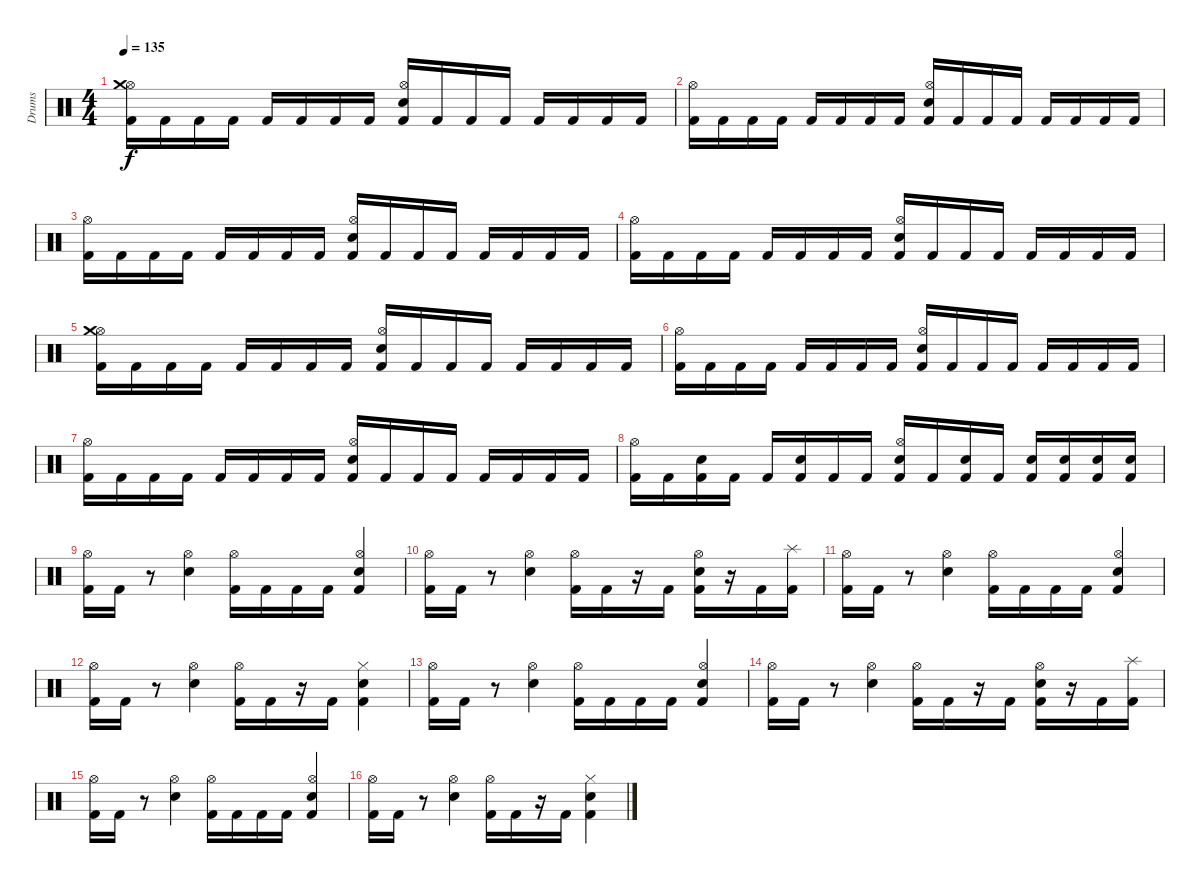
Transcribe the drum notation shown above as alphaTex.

\track ("Drums" "Drums") {instrument percussion}
\staff {score}
\articulation defaults
\ts (4 4)
\tempo 135
\clef neutral
\ks c
("Kick (hit) 2" "Hi-Hat (open)" "Crash medium (hit)").16{dy f} "Kick (hit) 2".16 "Kick (hit) 2".16 "Kick (hit) 2".16 "Kick (hit) 2".16 "Kick (hit) 2".16 "Kick (hit) 2".16 "Kick (hit) 2".16 ("Snare (hit) 2" "Kick (hit) 2" "Hi-Hat (open)").16 "Kick (hit) 2".16 "Kick (hit) 2".16 "Kick (hit) 2".16 "Kick (hit) 2".16 "Kick (hit) 2".16 "Kick (hit) 2".16 "Kick (hit) 2".16 |
("Kick (hit) 2" "Hi-Hat (open)").16 "Kick (hit) 2".16 "Kick (hit) 2".16 "Kick (hit) 2".16 "Kick (hit) 2".16 "Kick (hit) 2".16 "Kick (hit) 2".16 "Kick (hit) 2".16 ("Snare (hit) 2" "Kick (hit) 2" "Hi-Hat (open)").16 "Kick (hit) 2".16 "Kick (hit) 2".16 "Kick (hit) 2".16 "Kick (hit) 2".16 "Kick (hit) 2".16 "Kick (hit) 2".16 "Kick (hit) 2".16 |
("Kick (hit) 2" "Hi-Hat (open)").16 "Kick (hit) 2".16 "Kick (hit) 2".16 "Kick (hit) 2".16 "Kick (hit) 2".16 "Kick (hit) 2".16 "Kick (hit) 2".16 "Kick (hit) 2".16 ("Snare (hit) 2" "Kick (hit) 2" "Hi-Hat (open)").16 "Kick (hit) 2".16 "Kick (hit) 2".16 "Kick (hit) 2".16 "Kick (hit) 2".16 "Kick (hit) 2".16 "Kick (hit) 2".16 "Kick (hit) 2".16 |
("Kick (hit) 2" "Hi-Hat (open)").16 "Kick (hit) 2".16 "Kick (hit) 2".16 "Kick (hit) 2".16 "Kick (hit) 2".16 "Kick (hit) 2".16 "Kick (hit) 2".16 "Kick (hit) 2".16 ("Snare (hit) 2" "Kick (hit) 2" "Hi-Hat (open)").16 "Kick (hit) 2".16 "Kick (hit) 2".16 "Kick (hit) 2".16 "Kick (hit) 2".16 "Kick (hit) 2".16 "Kick (hit) 2".16 "Kick (hit) 2".16 |
("Kick (hit) 2" "Hi-Hat (open)" "Crash medium (hit)").16 "Kick (hit) 2".16 "Kick (hit) 2".16 "Kick (hit) 2".16 "Kick (hit) 2".16 "Kick (hit) 2".16 "Kick (hit) 2".16 "Kick (hit) 2".16 ("Snare (hit) 2" "Kick (hit) 2" "Hi-Hat (open)").16 "Kick (hit) 2".16 "Kick (hit) 2".16 "Kick (hit) 2".16 "Kick (hit) 2".16 "Kick (hit) 2".16 "Kick (hit) 2".16 "Kick (hit) 2".16 |
("Kick (hit) 2" "Hi-Hat (open)").16 "Kick (hit) 2".16 "Kick (hit) 2".16 "Kick (hit) 2".16 "Kick (hit) 2".16 "Kick (hit) 2".16 "Kick (hit) 2".16 "Kick (hit) 2".16 ("Snare (hit) 2" "Kick (hit) 2" "Hi-Hat (open)").16 "Kick (hit) 2".16 "Kick (hit) 2".16 "Kick (hit) 2".16 "Kick (hit) 2".16 "Kick (hit) 2".16 "Kick (hit) 2".16 "Kick (hit) 2".16 |
("Kick (hit) 2" "Hi-Hat (open)").16 "Kick (hit) 2".16 "Kick (hit) 2".16 "Kick (hit) 2".16 "Kick (hit) 2".16 "Kick (hit) 2".16 "Kick (hit) 2".16 "Kick (hit) 2".16 ("Snare (hit) 2" "Kick (hit) 2" "Hi-Hat (open)").16 "Kick (hit) 2".16 "Kick (hit) 2".16 "Kick (hit) 2".16 "Kick (hit) 2".16 "Kick (hit) 2".16 "Kick (hit) 2".16 "Kick (hit) 2".16 |
("Kick (hit) 2" "Hi-Hat (open)").16 "Kick (hit) 2".16 ("Snare (hit) 2" "Kick (hit) 2").16 "Kick (hit) 2".16 "Kick (hit) 2".16 ("Snare (hit) 2" "Kick (hit) 2").16 "Kick (hit) 2".16 "Kick (hit) 2".16 ("Snare (hit) 2" "Kick (hit) 2" "Hi-Hat (open)").16 "Kick (hit) 2".16 ("Snare (hit) 2" "Kick (hit) 2").16 "Kick (hit) 2".16 ("Snare (hit) 2" "Kick (hit) 2").16 ("Snare (hit) 2" "Kick (hit) 2").16 ("Snare (hit) 2" "Kick (hit) 2").16 ("Snare (hit) 2" "Kick (hit) 2").16 |
("Hi-Hat (open)" "Kick (hit) 2").16 "Kick (hit) 2".16 r.8 ("Hi-Hat (open)" "Snare (hit) 2").4 ("Hi-Hat (open)" "Kick (hit) 2").16 "Kick (hit) 2".16 "Kick (hit) 2".16 "Kick (hit) 2".16 ("Hi-Hat (open)" "Kick (hit) 2" "Snare (hit) 2").4 |
("Hi-Hat (open)" "Kick (hit) 2").16 "Kick (hit) 2".16 r.8 ("Hi-Hat (open)" "Snare (hit) 2").4 ("Hi-Hat (open)" "Kick (hit) 2").16 "Kick (hit) 2".16 r.16 "Kick (hit) 2".16 ("Hi-Hat (open)" "Kick (hit) 2" "Snare (hit) 2").16 r.16 "Kick (hit) 2".16 ("Splash (hit)" "Kick (hit) 2").16 |
("Hi-Hat (open)" "Kick (hit) 2").16 "Kick (hit) 2".16 r.8 ("Hi-Hat (open)" "Snare (hit) 2").4 ("Hi-Hat (open)" "Kick (hit) 2").16 "Kick (hit) 2".16 "Kick (hit) 2".16 "Kick (hit) 2".16 ("Hi-Hat (open)" "Kick (hit) 2" "Snare (hit) 2").4 |
("Hi-Hat (open)" "Kick (hit) 2").16 "Kick (hit) 2".16 r.8 ("Hi-Hat (open)" "Snare (hit) 2").4 ("Hi-Hat (open)" "Kick (hit) 2").16 "Kick (hit) 2".16 r.16 "Kick (hit) 2".16 ("Hi-Hat (closed)" "Kick (hit) 2" "Snare (hit) 2").4 |
("Hi-Hat (open)" "Kick (hit) 2").16 "Kick (hit) 2".16 r.8 ("Hi-Hat (open)" "Snare (hit) 2").4 ("Hi-Hat (open)" "Kick (hit) 2").16 "Kick (hit) 2".16 "Kick (hit) 2".16 "Kick (hit) 2".16 ("Hi-Hat (open)" "Kick (hit) 2" "Snare (hit) 2").4 |
("Hi-Hat (open)" "Kick (hit) 2").16 "Kick (hit) 2".16 r.8 ("Hi-Hat (open)" "Snare (hit) 2").4 ("Hi-Hat (open)" "Kick (hit) 2").16 "Kick (hit) 2".16 r.16 "Kick (hit) 2".16 ("Hi-Hat (open)" "Kick (hit) 2" "Snare (hit) 2").16 r.16 "Kick (hit) 2".16 ("Splash (hit)" "Kick (hit) 2").16 |
("Hi-Hat (open)" "Kick (hit) 2").16 "Kick (hit) 2".16 r.8 ("Hi-Hat (open)" "Snare (hit) 2").4 ("Hi-Hat (open)" "Kick (hit) 2").16 "Kick (hit) 2".16 "Kick (hit) 2".16 "Kick (hit) 2".16 ("Hi-Hat (open)" "Kick (hit) 2" "Snare (hit) 2").4 |
("Hi-Hat (open)" "Kick (hit) 2").16 "Kick (hit) 2".16 r.8 ("Hi-Hat (open)" "Snare (hit) 2").4 ("Hi-Hat (open)" "Kick (hit) 2").16 "Kick (hit) 2".16 r.16 "Kick (hit) 2".16 ("Hi-Hat (closed)" "Kick (hit) 2" "Snare (hit) 2").4
